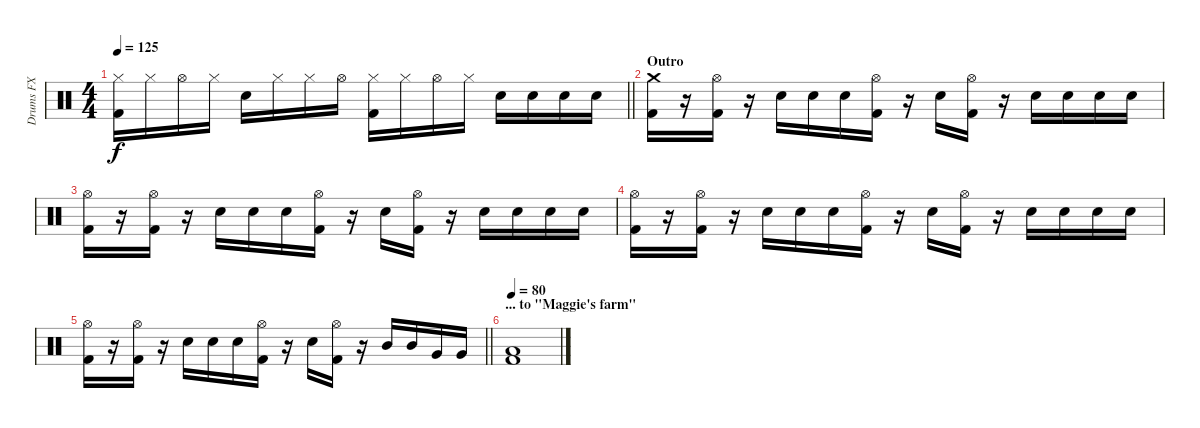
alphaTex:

\track ("Drums FX" "Drums FX") {instrument percussion}
\staff {score}
\articulation defaults
\ts (4 4)
\tempo 125
\clef neutral
\barLineRight lightlight
\ks c
("Hi-Hat (closed)" "Kick (hit) 2").16{dy f} "Hi-Hat (closed)".16 "Hi-Hat (open)".16 "Hi-Hat (closed)".16 "Snare (hit) 2".16 "Hi-Hat (closed)".16 "Hi-Hat (closed)".16 "Hi-Hat (open)".16 ("Hi-Hat (closed)" "Kick (hit) 2").16 "Hi-Hat (closed)".16 "Hi-Hat (open)".16 "Hi-Hat (closed)".16 "Snare (hit) 2".16 "Snare (hit) 2".16 "Snare (hit) 2".16 "Snare (hit) 2".16 |
\section ("" "Outro")
("Crash medium (hit)" "Kick (hit) 2").16 r.16 ("Hi-Hat (open)" "Kick (hit) 2").16 r.16 "Snare (hit) 2".16 "Snare (hit) 2".16 "Snare (hit) 2".16 ("Hi-Hat (open)" "Kick (hit) 2").16 r.16 "Snare (hit) 2".16 ("Hi-Hat (open)" "Kick (hit) 2").16 r.16 "Snare (hit) 2".16 "Snare (hit) 2".16 "Snare (hit) 2".16 "Snare (hit) 2".16 |
("Hi-Hat (open)" "Kick (hit) 2").16 r.16 ("Hi-Hat (open)" "Kick (hit) 2").16 r.16 "Snare (hit) 2".16 "Snare (hit) 2".16 "Snare (hit) 2".16 ("Hi-Hat (open)" "Kick (hit) 2").16 r.16 "Snare (hit) 2".16 ("Hi-Hat (open)" "Kick (hit) 2").16 r.16 "Snare (hit) 2".16 "Snare (hit) 2".16 "Snare (hit) 2".16 "Snare (hit) 2".16 |
("Hi-Hat (open)" "Kick (hit) 2").16 r.16 ("Hi-Hat (open)" "Kick (hit) 2").16 r.16 "Snare (hit) 2".16 "Snare (hit) 2".16 "Snare (hit) 2".16 ("Hi-Hat (open)" "Kick (hit) 2").16 r.16 "Snare (hit) 2".16 ("Hi-Hat (open)" "Kick (hit) 2").16 r.16 "Snare (hit) 2".16 "Snare (hit) 2".16 "Snare (hit) 2".16 "Snare (hit) 2".16 |
\barLineRight lightlight
("Hi-Hat (open)" "Kick (hit) 2").16 r.16 ("Hi-Hat (open)" "Kick (hit) 2").16 r.16 "Snare (hit) 2".16 "Snare (hit) 2".16 "Snare (hit) 2".16 ("Hi-Hat (open)" "Kick (hit) 2").16 r.16 "Snare (hit) 2".16 ("Hi-Hat (open)" "Kick (hit) 2").16 r.16 "Mid Tom (hit)".16 "Mid Tom (hit)".16 "Very Low Tom (hit)".16 "Very Low Tom (hit)".16 |
\section ("" "... to \"Maggie's farm\"")
\tempo 80
("Low Floor Tom (hit)" "Kick (hit) 2").1
